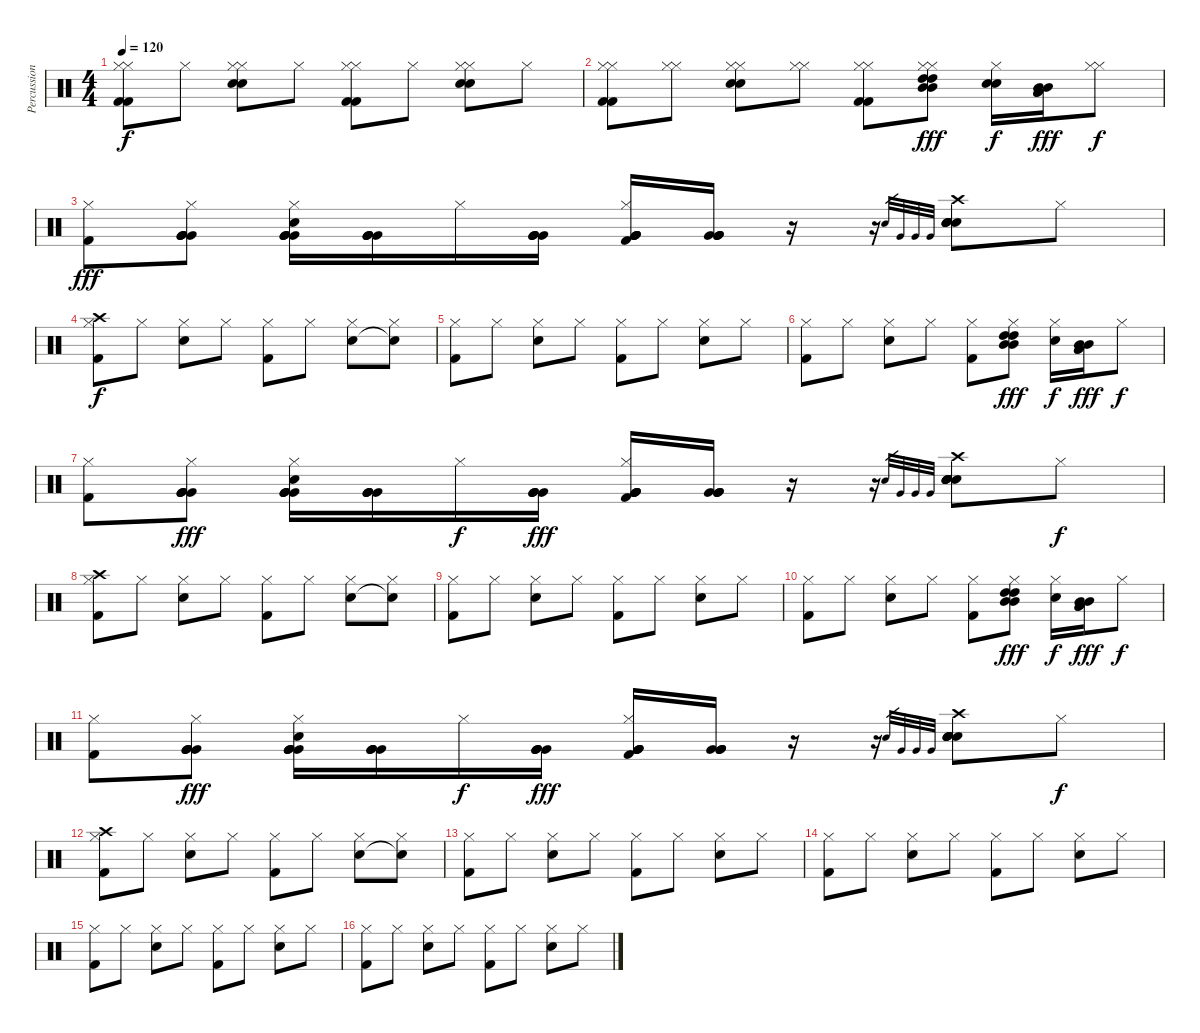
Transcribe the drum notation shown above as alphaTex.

\track ("Percussion" "Percussion") {instrument percussion}
\staff {score}
\articulation defaults
\ts (4 4)
\tempo 120
\clef neutral
\ks c
("Kick (hit) 2" "Kick (hit) 2" "Hi-Hat (closed)" "Hi-Hat (closed)").8{dy f} "Hi-Hat (closed)".8 ("Electric Snare (hit)" "Electric Snare (hit)" "Hi-Hat (closed)" "Hi-Hat (closed)").8 "Hi-Hat (closed)".8 ("Kick (hit) 2" "Kick (hit) 2" "Hi-Hat (closed)" "Hi-Hat (closed)").8 "Hi-Hat (closed)".8 ("Electric Snare (hit)" "Electric Snare (hit)" "Hi-Hat (closed)" "Hi-Hat (closed)").8 "Hi-Hat (closed)".8 |
("Hi-Hat (closed)" "Kick (hit) 2" "Kick (hit) 2" "Hi-Hat (closed)").8 ("Hi-Hat (closed)" "Hi-Hat (closed)").8 ("Hi-Hat (closed)" "Electric Snare (hit)" "Electric Snare (hit)" "Hi-Hat (closed)").8 ("Hi-Hat (closed)" "Hi-Hat (closed)").8 ("Hi-Hat (closed)" "Kick (hit) 2" "Kick (hit) 2" "Hi-Hat (closed)").8 ("Hi-Hat (closed)" "Hi-Hat (closed)" "High Tom (hit)" "High Tom (hit)" "Mid Tom (hit)" "Mid Tom (hit)").8{dy fff} ("Hi-Hat (closed)" "Electric Snare (hit)" "Electric Snare (hit)").16{dy f} ("Mid Tom (hit)" "Mid Tom (hit)" "Low Tom (hit)" "Low Tom (hit)").16{dy fff} ("Hi-Hat (closed)" "Hi-Hat (closed)").8{dy f} |
("Hi-Hat (closed)" "Kick (hit) 2").8{dy fff} ("Hi-Hat (closed)" "Very Low Tom (hit)" "Very Low Tom (hit)" "Very Low Tom (hit)" "Very Low Tom (hit)").8 ("Hi-Hat (closed)" "Electric Snare (hit)" "Very Low Tom (hit)" "Very Low Tom (hit)" "Very Low Tom (hit)" "Very Low Tom (hit)").16 ("Very Low Tom (hit)" "Very Low Tom (hit)" "Very Low Tom (hit)" "Very Low Tom (hit)").16 "Hi-Hat (closed)".16 ("Very Low Tom (hit)" "Very Low Tom (hit)" "Very Low Tom (hit)" "Very Low Tom (hit)").16 ("Hi-Hat (closed)" "Kick (hit) 2" "Very Low Tom (hit)" "Very Low Tom (hit)" "Very Low Tom (hit)" "Very Low Tom (hit)").16 ("Very Low Tom (hit)" "Very Low Tom (hit)" "Very Low Tom (hit)" "Very Low Tom (hit)").16 r.16 r.16 "Snare (hit)".32{gr} "Very Low Tom (hit)".32{gr} "Very Low Tom (hit)".32{gr} "Very Low Tom (hit)".32{gr} ("Crash high (hit)" "Electric Snare (hit)" "Electric Snare (hit)" "Electric Snare (hit)" "Electric Snare (hit)" "Electric Snare (hit)").8 "Hi-Hat (closed)".8 |
("Hi-Hat (closed)" "Kick (hit) 2" "Crash high (hit)").8{dy f} "Hi-Hat (closed)".8 ("Hi-Hat (closed)" "Electric Snare (hit)").8 "Hi-Hat (closed)".8 ("Hi-Hat (closed)" "Kick (hit) 2").8 "Hi-Hat (closed)".8 ("Hi-Hat (closed)" "Electric Snare (hit)").8 ("Hi-Hat (closed)" "Snare (hit)"{t}).8 |
("Hi-Hat (closed)" "Kick (hit) 2").8 "Hi-Hat (closed)".8 ("Hi-Hat (closed)" "Electric Snare (hit)").8 "Hi-Hat (closed)".8 ("Hi-Hat (closed)" "Kick (hit) 2").8 "Hi-Hat (closed)".8 ("Hi-Hat (closed)" "Electric Snare (hit)").8 "Hi-Hat (closed)".8 |
("Hi-Hat (closed)" "Kick (hit) 2").8 "Hi-Hat (closed)".8 ("Hi-Hat (closed)" "Electric Snare (hit)").8 "Hi-Hat (closed)".8 ("Hi-Hat (closed)" "Kick (hit) 2").8 ("Hi-Hat (closed)" "High Tom (hit)" "High Tom (hit)" "Mid Tom (hit)" "Mid Tom (hit)").8{dy fff} ("Hi-Hat (closed)" "Electric Snare (hit)").16{dy f} ("Mid Tom (hit)" "Mid Tom (hit)" "Low Tom (hit)" "Low Tom (hit)").16{dy fff} "Hi-Hat (closed)".8{dy f} |
("Hi-Hat (closed)" "Kick (hit) 2").8 ("Hi-Hat (closed)" "Very Low Tom (hit)" "Very Low Tom (hit)" "Very Low Tom (hit)" "Very Low Tom (hit)").8{dy fff} ("Hi-Hat (closed)" "Electric Snare (hit)" "Very Low Tom (hit)" "Very Low Tom (hit)" "Very Low Tom (hit)" "Very Low Tom (hit)").16 ("Very Low Tom (hit)" "Very Low Tom (hit)" "Very Low Tom (hit)" "Very Low Tom (hit)").16 "Hi-Hat (closed)".16{dy f} ("Very Low Tom (hit)" "Very Low Tom (hit)" "Very Low Tom (hit)" "Very Low Tom (hit)").16{dy fff} ("Hi-Hat (closed)" "Kick (hit) 2" "Very Low Tom (hit)" "Very Low Tom (hit)" "Very Low Tom (hit)" "Very Low Tom (hit)").16 ("Very Low Tom (hit)" "Very Low Tom (hit)" "Very Low Tom (hit)" "Very Low Tom (hit)").16 r.16 r.16 "Snare (hit)".32{gr} "Very Low Tom (hit)".32{gr} "Very Low Tom (hit)".32{gr} "Very Low Tom (hit)".32{gr} ("Crash high (hit)" "Electric Snare (hit)" "Electric Snare (hit)" "Electric Snare (hit)" "Electric Snare (hit)" "Electric Snare (hit)").8 "Hi-Hat (closed)".8{dy f} |
("Hi-Hat (closed)" "Kick (hit) 2" "Crash high (hit)").8 "Hi-Hat (closed)".8 ("Hi-Hat (closed)" "Electric Snare (hit)").8 "Hi-Hat (closed)".8 ("Hi-Hat (closed)" "Kick (hit) 2").8 "Hi-Hat (closed)".8 ("Hi-Hat (closed)" "Electric Snare (hit)").8 ("Hi-Hat (closed)" "Snare (hit)"{t}).8 |
("Hi-Hat (closed)" "Kick (hit) 2").8 "Hi-Hat (closed)".8 ("Hi-Hat (closed)" "Electric Snare (hit)").8 "Hi-Hat (closed)".8 ("Hi-Hat (closed)" "Kick (hit) 2").8 "Hi-Hat (closed)".8 ("Hi-Hat (closed)" "Electric Snare (hit)").8 "Hi-Hat (closed)".8 |
("Hi-Hat (closed)" "Kick (hit) 2").8 "Hi-Hat (closed)".8 ("Hi-Hat (closed)" "Electric Snare (hit)").8 "Hi-Hat (closed)".8 ("Hi-Hat (closed)" "Kick (hit) 2").8 ("Hi-Hat (closed)" "High Tom (hit)" "High Tom (hit)" "Mid Tom (hit)" "Mid Tom (hit)").8{dy fff} ("Hi-Hat (closed)" "Electric Snare (hit)").16{dy f} ("Mid Tom (hit)" "Mid Tom (hit)" "Low Tom (hit)" "Low Tom (hit)").16{dy fff} "Hi-Hat (closed)".8{dy f} |
("Hi-Hat (closed)" "Kick (hit) 2").8 ("Hi-Hat (closed)" "Very Low Tom (hit)" "Very Low Tom (hit)" "Very Low Tom (hit)" "Very Low Tom (hit)").8{dy fff} ("Hi-Hat (closed)" "Electric Snare (hit)" "Very Low Tom (hit)" "Very Low Tom (hit)" "Very Low Tom (hit)" "Very Low Tom (hit)").16 ("Very Low Tom (hit)" "Very Low Tom (hit)" "Very Low Tom (hit)" "Very Low Tom (hit)").16 "Hi-Hat (closed)".16{dy f} ("Very Low Tom (hit)" "Very Low Tom (hit)" "Very Low Tom (hit)" "Very Low Tom (hit)").16{dy fff} ("Hi-Hat (closed)" "Kick (hit) 2" "Very Low Tom (hit)" "Very Low Tom (hit)" "Very Low Tom (hit)" "Very Low Tom (hit)").16 ("Very Low Tom (hit)" "Very Low Tom (hit)" "Very Low Tom (hit)" "Very Low Tom (hit)").16 r.16 r.16 "Snare (hit)".32{gr} "Very Low Tom (hit)".32{gr} "Very Low Tom (hit)".32{gr} "Very Low Tom (hit)".32{gr} ("Crash high (hit)" "Electric Snare (hit)" "Electric Snare (hit)" "Electric Snare (hit)" "Electric Snare (hit)" "Electric Snare (hit)").8 "Hi-Hat (closed)".8{dy f} |
("Hi-Hat (closed)" "Kick (hit) 2" "Crash high (hit)").8 "Hi-Hat (closed)".8 ("Hi-Hat (closed)" "Electric Snare (hit)").8 "Hi-Hat (closed)".8 ("Hi-Hat (closed)" "Kick (hit) 2").8 "Hi-Hat (closed)".8 ("Hi-Hat (closed)" "Electric Snare (hit)").8 ("Hi-Hat (closed)" "Snare (hit)"{t}).8 |
("Hi-Hat (closed)" "Kick (hit) 2").8 "Hi-Hat (closed)".8 ("Hi-Hat (closed)" "Electric Snare (hit)").8 "Hi-Hat (closed)".8 ("Hi-Hat (closed)" "Kick (hit) 2").8 "Hi-Hat (closed)".8 ("Hi-Hat (closed)" "Electric Snare (hit)").8 "Hi-Hat (closed)".8 |
("Hi-Hat (closed)" "Kick (hit) 2").8 "Hi-Hat (closed)".8 ("Hi-Hat (closed)" "Electric Snare (hit)").8 "Hi-Hat (closed)".8 ("Hi-Hat (closed)" "Kick (hit) 2").8 "Hi-Hat (closed)".8 ("Hi-Hat (closed)" "Electric Snare (hit)").8 "Hi-Hat (closed)".8 |
("Hi-Hat (closed)" "Kick (hit) 2").8 "Hi-Hat (closed)".8 ("Hi-Hat (closed)" "Electric Snare (hit)").8 "Hi-Hat (closed)".8 ("Hi-Hat (closed)" "Kick (hit) 2").8 "Hi-Hat (closed)".8 ("Hi-Hat (closed)" "Electric Snare (hit)").8 "Hi-Hat (closed)".8 |
("Hi-Hat (closed)" "Kick (hit) 2").8 "Hi-Hat (closed)".8 ("Hi-Hat (closed)" "Electric Snare (hit)").8 "Hi-Hat (closed)".8 ("Hi-Hat (closed)" "Kick (hit) 2").8 "Hi-Hat (closed)".8 ("Hi-Hat (closed)" "Electric Snare (hit)").8 "Hi-Hat (closed)".8
